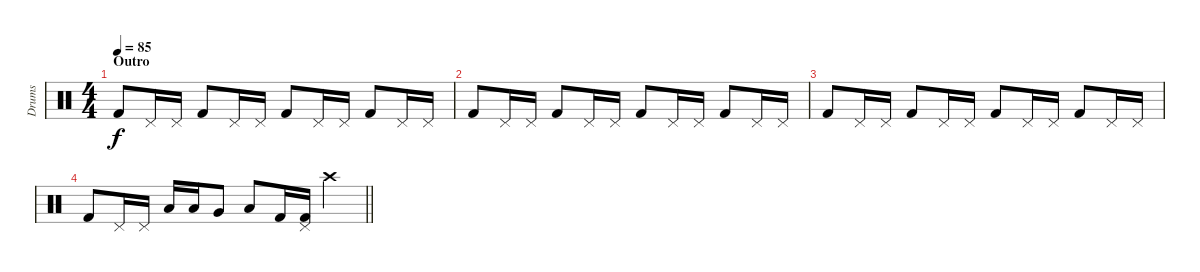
\track ("Drums" "Drums") {instrument percussion}
\staff {score}
\articulation defaults
\ts (4 4)
\section ("" "Outro")
\tempo 85
\clef neutral
\ks c "Kick (hit) 2".8{dy f} "Pedal Hi-Hat (hit)".16 "Pedal Hi-Hat (hit)".16 "Kick (hit) 2".8 "Pedal Hi-Hat (hit)".16 "Pedal Hi-Hat (hit)".16 "Kick (hit) 2".8 "Pedal Hi-Hat (hit)".16 "Pedal Hi-Hat (hit)".16 "Kick (hit) 2".8 "Pedal Hi-Hat (hit)".16 "Pedal Hi-Hat (hit)".16
|
"Kick (hit) 2".8 "Pedal Hi-Hat (hit)".16 "Pedal Hi-Hat (hit)".16 "Kick (hit) 2".8 "Pedal Hi-Hat (hit)".16 "Pedal Hi-Hat (hit)".16 "Kick (hit) 2".8 "Pedal Hi-Hat (hit)".16 "Pedal Hi-Hat (hit)".16 "Kick (hit) 2".8 "Pedal Hi-Hat (hit)".16 "Pedal Hi-Hat (hit)".16 |
"Kick (hit) 2".8 "Pedal Hi-Hat (hit)".16 "Pedal Hi-Hat (hit)".16 "Kick (hit) 2".8 "Pedal Hi-Hat (hit)".16 "Pedal Hi-Hat (hit)".16 "Kick (hit) 2".8 "Pedal Hi-Hat (hit)".16 "Pedal Hi-Hat (hit)".16 "Kick (hit) 2".8 "Pedal Hi-Hat (hit)".16 "Pedal Hi-Hat (hit)".16 |
\barLineRight lightlight "Kick (hit) 2".8 "Pedal Hi-Hat (hit)".16 "Pedal Hi-Hat (hit)".16 "Low Tom (hit)".16 "Low Tom (hit)".16 "Very Low Tom (hit)".8 "Low Floor Tom (hit)".8 "Kick (hit) 2".16
("Pedal Hi-Hat (hit)" "Kick (hit) 2").16 "Crash high (hit)".4
